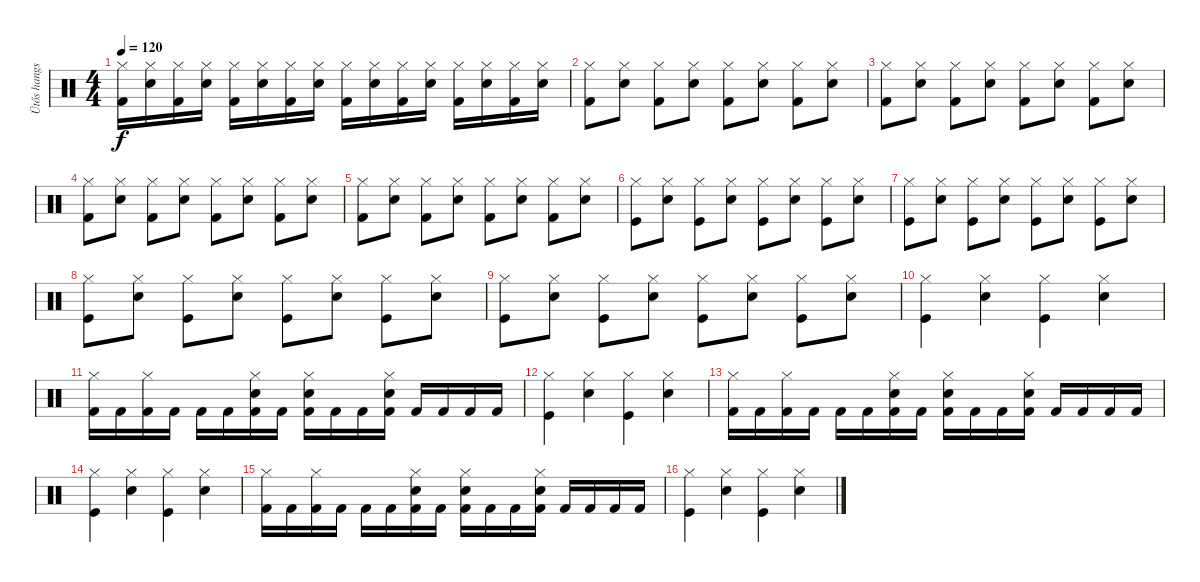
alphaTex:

\track ("Ütős hangszer" "Ütős hangs") {instrument percussion}
\staff {score}
\articulation defaults
\ts (4 4)
\tempo 120
\clef neutral
\ks c
("Hi-Hat (closed)" "Kick (hit) 2").16{dy f} ("Hi-Hat (closed)" "Snare (hit) 2").16 ("Hi-Hat (closed)" "Kick (hit) 2").16 ("Hi-Hat (closed)" "Snare (hit) 2").16 ("Hi-Hat (closed)" "Kick (hit) 2").16 ("Hi-Hat (closed)" "Snare (hit) 2").16 ("Hi-Hat (closed)" "Kick (hit) 2").16 ("Hi-Hat (closed)" "Snare (hit) 2").16 ("Hi-Hat (closed)" "Kick (hit) 2").16 ("Hi-Hat (closed)" "Snare (hit) 2").16 ("Hi-Hat (closed)" "Kick (hit) 2").16 ("Hi-Hat (closed)" "Snare (hit) 2").16 ("Hi-Hat (closed)" "Kick (hit) 2").16 ("Hi-Hat (closed)" "Snare (hit) 2").16 ("Hi-Hat (closed)" "Kick (hit) 2").16 ("Hi-Hat (closed)" "Snare (hit) 2").16 |
("Hi-Hat (closed)" "Kick (hit) 2").8 ("Hi-Hat (closed)" "Snare (hit) 2").8 ("Hi-Hat (closed)" "Kick (hit) 2").8 ("Hi-Hat (closed)" "Snare (hit) 2").8 ("Hi-Hat (closed)" "Kick (hit) 2").8 ("Hi-Hat (closed)" "Snare (hit) 2").8 ("Hi-Hat (closed)" "Kick (hit) 2").8 ("Hi-Hat (closed)" "Snare (hit) 2").8 |
("Hi-Hat (closed)" "Kick (hit) 2").8 ("Hi-Hat (closed)" "Snare (hit) 2").8 ("Hi-Hat (closed)" "Kick (hit) 2").8 ("Hi-Hat (closed)" "Snare (hit) 2").8 ("Hi-Hat (closed)" "Kick (hit) 2").8 ("Hi-Hat (closed)" "Snare (hit) 2").8 ("Hi-Hat (closed)" "Kick (hit) 2").8 ("Hi-Hat (closed)" "Snare (hit) 2").8 |
("Hi-Hat (closed)" "Kick (hit) 2").8 ("Hi-Hat (closed)" "Snare (hit) 2").8 ("Hi-Hat (closed)" "Kick (hit) 2").8 ("Hi-Hat (closed)" "Snare (hit) 2").8 ("Hi-Hat (closed)" "Kick (hit) 2").8 ("Hi-Hat (closed)" "Snare (hit) 2").8 ("Hi-Hat (closed)" "Kick (hit) 2").8 ("Hi-Hat (closed)" "Snare (hit) 2").8 |
("Hi-Hat (closed)" "Kick (hit) 2").8 ("Hi-Hat (closed)" "Snare (hit) 2").8 ("Hi-Hat (closed)" "Kick (hit) 2").8 ("Hi-Hat (closed)" "Snare (hit) 2").8 ("Hi-Hat (closed)" "Kick (hit) 2").8 ("Hi-Hat (closed)" "Snare (hit) 2").8 ("Hi-Hat (closed)" "Kick (hit) 2").8 ("Hi-Hat (closed)" "Snare (hit) 2").8 |
("Hi-Hat (closed)" "Kick (hit)").8 ("Hi-Hat (closed)" "Snare (hit) 2").8 ("Hi-Hat (closed)" "Kick (hit)").8 ("Hi-Hat (closed)" "Snare (hit) 2").8 ("Hi-Hat (closed)" "Kick (hit)").8 ("Hi-Hat (closed)" "Snare (hit) 2").8 ("Hi-Hat (closed)" "Kick (hit)").8 ("Hi-Hat (closed)" "Snare (hit) 2").8 |
("Hi-Hat (closed)" "Kick (hit)").8 ("Hi-Hat (closed)" "Snare (hit) 2").8 ("Hi-Hat (closed)" "Kick (hit)").8 ("Hi-Hat (closed)" "Snare (hit) 2").8 ("Hi-Hat (closed)" "Kick (hit)").8 ("Hi-Hat (closed)" "Snare (hit) 2").8 ("Hi-Hat (closed)" "Kick (hit)").8 ("Hi-Hat (closed)" "Snare (hit) 2").8 |
("Hi-Hat (closed)" "Kick (hit)").8 ("Hi-Hat (closed)" "Snare (hit) 2").8 ("Hi-Hat (closed)" "Kick (hit)").8 ("Hi-Hat (closed)" "Snare (hit) 2").8 ("Hi-Hat (closed)" "Kick (hit)").8 ("Hi-Hat (closed)" "Snare (hit) 2").8 ("Hi-Hat (closed)" "Kick (hit)").8 ("Hi-Hat (closed)" "Snare (hit) 2").8 |
("Hi-Hat (closed)" "Kick (hit)").8 ("Hi-Hat (closed)" "Snare (hit) 2").8 ("Hi-Hat (closed)" "Kick (hit)").8 ("Hi-Hat (closed)" "Snare (hit) 2").8 ("Hi-Hat (closed)" "Kick (hit)").8 ("Hi-Hat (closed)" "Snare (hit) 2").8 ("Hi-Hat (closed)" "Kick (hit)").8 ("Hi-Hat (closed)" "Snare (hit) 2").8 |
("Hi-Hat (closed)" "Kick (hit)").4 ("Hi-Hat (closed)" "Snare (hit) 2").4 ("Hi-Hat (closed)" "Kick (hit)").4 ("Hi-Hat (closed)" "Snare (hit) 2").4 |
("Hi-Hat (closed)" "Kick (hit) 2").16 "Kick (hit) 2".16 ("Hi-Hat (closed)" "Kick (hit) 2").16 "Kick (hit) 2".16 "Kick (hit) 2".16 "Kick (hit) 2".16 ("Snare (hit) 2" "Hi-Hat (closed)" "Kick (hit) 2").16 "Kick (hit) 2".16 ("Snare (hit) 2" "Hi-Hat (closed)" "Kick (hit) 2").16 "Kick (hit) 2".16 "Kick (hit) 2".16 ("Snare (hit) 2" "Hi-Hat (closed)" "Kick (hit) 2").16 "Kick (hit) 2".16 "Kick (hit) 2".16 "Kick (hit) 2".16 "Kick (hit) 2".16 |
("Hi-Hat (closed)" "Kick (hit)").4 ("Hi-Hat (closed)" "Snare (hit) 2").4 ("Hi-Hat (closed)" "Kick (hit)").4 ("Hi-Hat (closed)" "Snare (hit) 2").4 |
("Hi-Hat (closed)" "Kick (hit) 2").16 "Kick (hit) 2".16 ("Hi-Hat (closed)" "Kick (hit) 2").16 "Kick (hit) 2".16 "Kick (hit) 2".16 "Kick (hit) 2".16 ("Snare (hit) 2" "Hi-Hat (closed)" "Kick (hit) 2").16 "Kick (hit) 2".16 ("Snare (hit) 2" "Hi-Hat (closed)" "Kick (hit) 2").16 "Kick (hit) 2".16 "Kick (hit) 2".16 ("Snare (hit) 2" "Hi-Hat (closed)" "Kick (hit) 2").16 "Kick (hit) 2".16 "Kick (hit) 2".16 "Kick (hit) 2".16 "Kick (hit) 2".16 |
("Hi-Hat (closed)" "Kick (hit)").4 ("Hi-Hat (closed)" "Snare (hit) 2").4 ("Hi-Hat (closed)" "Kick (hit)").4 ("Hi-Hat (closed)" "Snare (hit) 2").4 |
("Hi-Hat (closed)" "Kick (hit) 2").16 "Kick (hit) 2".16 ("Hi-Hat (closed)" "Kick (hit) 2").16 "Kick (hit) 2".16 "Kick (hit) 2".16 "Kick (hit) 2".16 ("Snare (hit) 2" "Hi-Hat (closed)" "Kick (hit) 2").16 "Kick (hit) 2".16 ("Snare (hit) 2" "Hi-Hat (closed)" "Kick (hit) 2").16 "Kick (hit) 2".16 "Kick (hit) 2".16 ("Snare (hit) 2" "Hi-Hat (closed)" "Kick (hit) 2").16 "Kick (hit) 2".16 "Kick (hit) 2".16 "Kick (hit) 2".16 "Kick (hit) 2".16 |
("Hi-Hat (closed)" "Kick (hit)").4 ("Hi-Hat (closed)" "Snare (hit) 2").4 ("Hi-Hat (closed)" "Kick (hit)").4 ("Hi-Hat (closed)" "Snare (hit) 2").4
